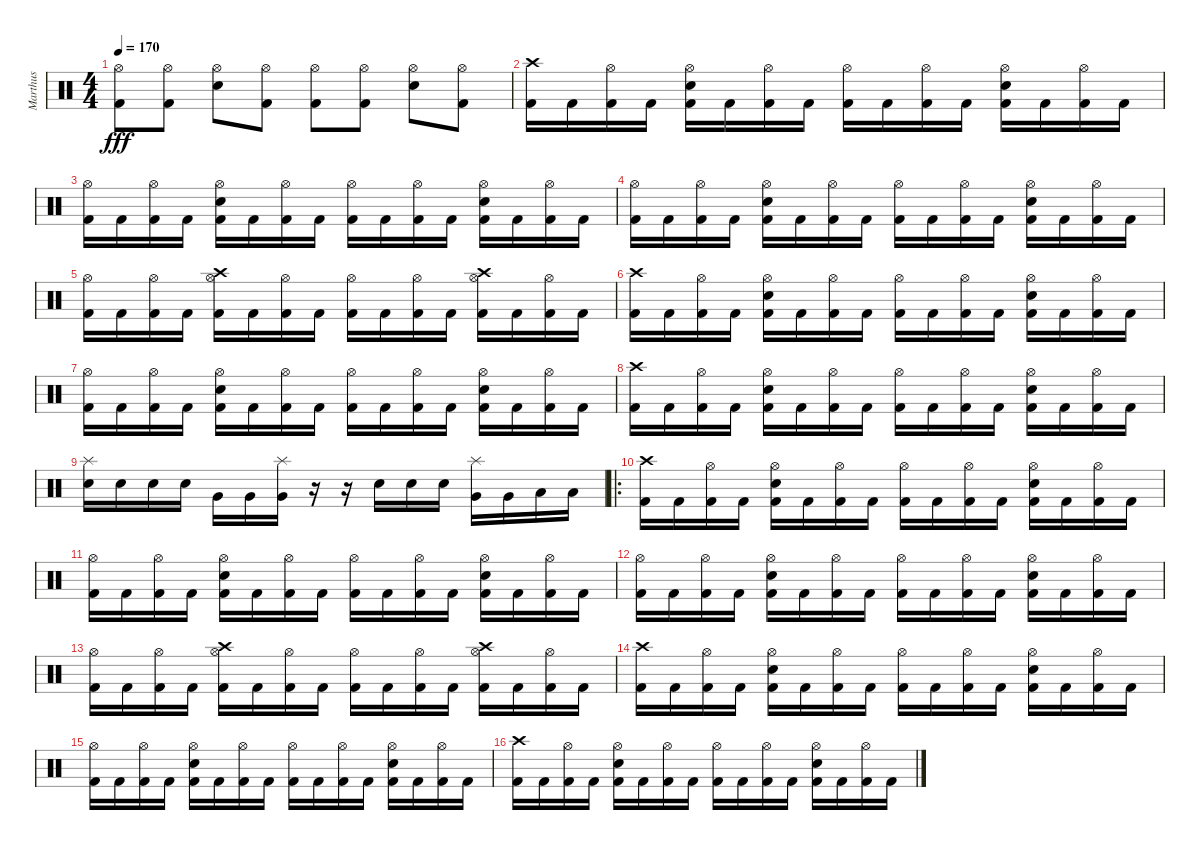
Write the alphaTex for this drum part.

\track ("Marthus" "Marthus") {instrument percussion}
\staff {score}
\articulation defaults
\ts (4 4)
\tempo 170
\clef neutral
\ks c
("Hi-Hat (open)" "Kick (hit) 2").8{dy fff} ("Hi-Hat (open)" "Kick (hit) 2").8 ("Hi-Hat (open)" "Electric Snare (hit)").8 ("Hi-Hat (open)" "Kick (hit) 2").8 ("Hi-Hat (open)" "Kick (hit) 2").8 ("Hi-Hat (open)" "Kick (hit) 2").8 ("Hi-Hat (open)" "Electric Snare (hit)").8 ("Hi-Hat (open)" "Kick (hit) 2").8 |
("Crash high (hit)" "Kick (hit) 2").16 "Kick (hit) 2".16 ("Hi-Hat (open)" "Kick (hit) 2").16 "Kick (hit) 2".16 ("Hi-Hat (open)" "Electric Snare (hit)" "Kick (hit) 2").16 "Kick (hit) 2".16 ("Hi-Hat (open)" "Kick (hit) 2").16 "Kick (hit) 2".16 ("Hi-Hat (open)" "Kick (hit) 2").16 "Kick (hit) 2".16 ("Hi-Hat (open)" "Kick (hit) 2").16 "Kick (hit) 2".16 ("Hi-Hat (open)" "Electric Snare (hit)" "Kick (hit) 2").16 "Kick (hit) 2".16 ("Hi-Hat (open)" "Kick (hit) 2").16 "Kick (hit) 2".16 |
("Hi-Hat (open)" "Kick (hit) 2").16 "Kick (hit) 2".16 ("Hi-Hat (open)" "Kick (hit) 2").16 "Kick (hit) 2".16 ("Hi-Hat (open)" "Electric Snare (hit)" "Kick (hit) 2").16 "Kick (hit) 2".16 ("Hi-Hat (open)" "Kick (hit) 2").16 "Kick (hit) 2".16 ("Hi-Hat (open)" "Kick (hit) 2").16 "Kick (hit) 2".16 ("Hi-Hat (open)" "Kick (hit) 2").16 "Kick (hit) 2".16 ("Hi-Hat (open)" "Electric Snare (hit)" "Kick (hit) 2").16 "Kick (hit) 2".16 ("Hi-Hat (open)" "Kick (hit) 2").16 "Kick (hit) 2".16 |
("Hi-Hat (open)" "Kick (hit) 2").16 "Kick (hit) 2".16 ("Hi-Hat (open)" "Kick (hit) 2").16 "Kick (hit) 2".16 ("Hi-Hat (open)" "Electric Snare (hit)" "Kick (hit) 2").16 "Kick (hit) 2".16 ("Hi-Hat (open)" "Kick (hit) 2").16 "Kick (hit) 2".16 ("Hi-Hat (open)" "Kick (hit) 2").16 "Kick (hit) 2".16 ("Hi-Hat (open)" "Kick (hit) 2").16 "Kick (hit) 2".16 ("Hi-Hat (open)" "Electric Snare (hit)" "Kick (hit) 2").16 "Kick (hit) 2".16 ("Hi-Hat (open)" "Kick (hit) 2").16 "Kick (hit) 2".16 |
("Hi-Hat (open)" "Kick (hit) 2").16 "Kick (hit) 2".16 ("Hi-Hat (open)" "Kick (hit) 2").16 "Kick (hit) 2".16 ("Crash high (hit)" "Hi-Hat (open)" "Kick (hit) 2").16 "Kick (hit) 2".16 ("Hi-Hat (open)" "Kick (hit) 2").16 "Kick (hit) 2".16 ("Hi-Hat (open)" "Kick (hit) 2").16 "Kick (hit) 2".16 ("Hi-Hat (open)" "Kick (hit) 2").16 "Kick (hit) 2".16 ("Crash high (hit)" "Hi-Hat (open)" "Kick (hit) 2").16 "Kick (hit) 2".16 ("Hi-Hat (open)" "Kick (hit) 2").16 "Kick (hit) 2".16 |
("Crash high (hit)" "Kick (hit) 2").16 "Kick (hit) 2".16 ("Hi-Hat (open)" "Kick (hit) 2").16 "Kick (hit) 2".16 ("Hi-Hat (open)" "Electric Snare (hit)" "Kick (hit) 2").16 "Kick (hit) 2".16 ("Hi-Hat (open)" "Kick (hit) 2").16 "Kick (hit) 2".16 ("Hi-Hat (open)" "Kick (hit) 2").16 "Kick (hit) 2".16 ("Hi-Hat (open)" "Kick (hit) 2").16 "Kick (hit) 2".16 ("Hi-Hat (open)" "Electric Snare (hit)" "Kick (hit) 2").16 "Kick (hit) 2".16 ("Hi-Hat (open)" "Kick (hit) 2").16 "Kick (hit) 2".16 |
("Hi-Hat (open)" "Kick (hit) 2").16 "Kick (hit) 2".16 ("Hi-Hat (open)" "Kick (hit) 2").16 "Kick (hit) 2".16 ("Hi-Hat (open)" "Electric Snare (hit)" "Kick (hit) 2").16 "Kick (hit) 2".16 ("Hi-Hat (open)" "Kick (hit) 2").16 "Kick (hit) 2".16 ("Hi-Hat (open)" "Kick (hit) 2").16 "Kick (hit) 2".16 ("Hi-Hat (open)" "Kick (hit) 2").16 "Kick (hit) 2".16 ("Hi-Hat (open)" "Electric Snare (hit)" "Kick (hit) 2").16 "Kick (hit) 2".16 ("Hi-Hat (open)" "Kick (hit) 2").16 "Kick (hit) 2".16 |
("Crash high (hit)" "Kick (hit) 2").16 "Kick (hit) 2".16 ("Hi-Hat (open)" "Kick (hit) 2").16 "Kick (hit) 2".16 ("Hi-Hat (open)" "Electric Snare (hit)" "Kick (hit) 2").16 "Kick (hit) 2".16 ("Hi-Hat (open)" "Kick (hit) 2").16 "Kick (hit) 2".16 ("Hi-Hat (open)" "Kick (hit) 2").16 "Kick (hit) 2".16 ("Hi-Hat (open)" "Kick (hit) 2").16 "Kick (hit) 2".16 ("Hi-Hat (open)" "Electric Snare (hit)" "Kick (hit) 2").16 "Kick (hit) 2".16 ("Hi-Hat (open)" "Kick (hit) 2").16 "Kick (hit) 2".16 |
("Splash (hit)" "Electric Snare (hit)").16 "Electric Snare (hit)".16 "Electric Snare (hit)".16 "Electric Snare (hit)".16 "Very Low Tom (hit)".16 "Very Low Tom (hit)".16 ("Splash (hit)" "Very Low Tom (hit)").16 r.16 r.16 "Electric Snare (hit)".16 "Electric Snare (hit)".16 "Electric Snare (hit)".16 ("Splash (hit)" "Very Low Tom (hit)").16 "Very Low Tom (hit)".16 "Low Tom (hit)".16 "Low Tom (hit)".16 |
\ro
("Crash high (hit)" "Kick (hit) 2").16 "Kick (hit) 2".16 ("Hi-Hat (open)" "Kick (hit) 2").16 "Kick (hit) 2".16 ("Hi-Hat (open)" "Electric Snare (hit)" "Kick (hit) 2").16 "Kick (hit) 2".16 ("Hi-Hat (open)" "Kick (hit) 2").16 "Kick (hit) 2".16 ("Hi-Hat (open)" "Kick (hit) 2").16 "Kick (hit) 2".16 ("Hi-Hat (open)" "Kick (hit) 2").16 "Kick (hit) 2".16 ("Hi-Hat (open)" "Electric Snare (hit)" "Kick (hit) 2").16 "Kick (hit) 2".16 ("Hi-Hat (open)" "Kick (hit) 2").16 "Kick (hit) 2".16 |
("Hi-Hat (open)" "Kick (hit) 2").16 "Kick (hit) 2".16 ("Hi-Hat (open)" "Kick (hit) 2").16 "Kick (hit) 2".16 ("Hi-Hat (open)" "Electric Snare (hit)" "Kick (hit) 2").16 "Kick (hit) 2".16 ("Hi-Hat (open)" "Kick (hit) 2").16 "Kick (hit) 2".16 ("Hi-Hat (open)" "Kick (hit) 2").16 "Kick (hit) 2".16 ("Hi-Hat (open)" "Kick (hit) 2").16 "Kick (hit) 2".16 ("Hi-Hat (open)" "Electric Snare (hit)" "Kick (hit) 2").16 "Kick (hit) 2".16 ("Hi-Hat (open)" "Kick (hit) 2").16 "Kick (hit) 2".16 |
("Hi-Hat (open)" "Kick (hit) 2").16 "Kick (hit) 2".16 ("Hi-Hat (open)" "Kick (hit) 2").16 "Kick (hit) 2".16 ("Hi-Hat (open)" "Electric Snare (hit)" "Kick (hit) 2").16 "Kick (hit) 2".16 ("Hi-Hat (open)" "Kick (hit) 2").16 "Kick (hit) 2".16 ("Hi-Hat (open)" "Kick (hit) 2").16 "Kick (hit) 2".16 ("Hi-Hat (open)" "Kick (hit) 2").16 "Kick (hit) 2".16 ("Hi-Hat (open)" "Electric Snare (hit)" "Kick (hit) 2").16 "Kick (hit) 2".16 ("Hi-Hat (open)" "Kick (hit) 2").16 "Kick (hit) 2".16 |
("Hi-Hat (open)" "Kick (hit) 2").16 "Kick (hit) 2".16 ("Hi-Hat (open)" "Kick (hit) 2").16 "Kick (hit) 2".16 ("Crash high (hit)" "Hi-Hat (open)" "Kick (hit) 2").16 "Kick (hit) 2".16 ("Hi-Hat (open)" "Kick (hit) 2").16 "Kick (hit) 2".16 ("Hi-Hat (open)" "Kick (hit) 2").16 "Kick (hit) 2".16 ("Hi-Hat (open)" "Kick (hit) 2").16 "Kick (hit) 2".16 ("Crash high (hit)" "Hi-Hat (open)" "Kick (hit) 2").16 "Kick (hit) 2".16 ("Hi-Hat (open)" "Kick (hit) 2").16 "Kick (hit) 2".16 |
("Crash high (hit)" "Kick (hit) 2").16 "Kick (hit) 2".16 ("Hi-Hat (open)" "Kick (hit) 2").16 "Kick (hit) 2".16 ("Hi-Hat (open)" "Electric Snare (hit)" "Kick (hit) 2").16 "Kick (hit) 2".16 ("Hi-Hat (open)" "Kick (hit) 2").16 "Kick (hit) 2".16 ("Hi-Hat (open)" "Kick (hit) 2").16 "Kick (hit) 2".16 ("Hi-Hat (open)" "Kick (hit) 2").16 "Kick (hit) 2".16 ("Hi-Hat (open)" "Electric Snare (hit)" "Kick (hit) 2").16 "Kick (hit) 2".16 ("Hi-Hat (open)" "Kick (hit) 2").16 "Kick (hit) 2".16 |
("Hi-Hat (open)" "Kick (hit) 2").16 "Kick (hit) 2".16 ("Hi-Hat (open)" "Kick (hit) 2").16 "Kick (hit) 2".16 ("Hi-Hat (open)" "Electric Snare (hit)" "Kick (hit) 2").16 "Kick (hit) 2".16 ("Hi-Hat (open)" "Kick (hit) 2").16 "Kick (hit) 2".16 ("Hi-Hat (open)" "Kick (hit) 2").16 "Kick (hit) 2".16 ("Hi-Hat (open)" "Kick (hit) 2").16 "Kick (hit) 2".16 ("Hi-Hat (open)" "Electric Snare (hit)" "Kick (hit) 2").16 "Kick (hit) 2".16 ("Hi-Hat (open)" "Kick (hit) 2").16 "Kick (hit) 2".16 |
("Crash high (hit)" "Kick (hit) 2").16 "Kick (hit) 2".16 ("Hi-Hat (open)" "Kick (hit) 2").16 "Kick (hit) 2".16 ("Hi-Hat (open)" "Electric Snare (hit)" "Kick (hit) 2").16 "Kick (hit) 2".16 ("Hi-Hat (open)" "Kick (hit) 2").16 "Kick (hit) 2".16 ("Hi-Hat (open)" "Kick (hit) 2").16 "Kick (hit) 2".16 ("Hi-Hat (open)" "Kick (hit) 2").16 "Kick (hit) 2".16 ("Hi-Hat (open)" "Electric Snare (hit)" "Kick (hit) 2").16 "Kick (hit) 2".16 ("Hi-Hat (open)" "Kick (hit) 2").16 "Kick (hit) 2".16
